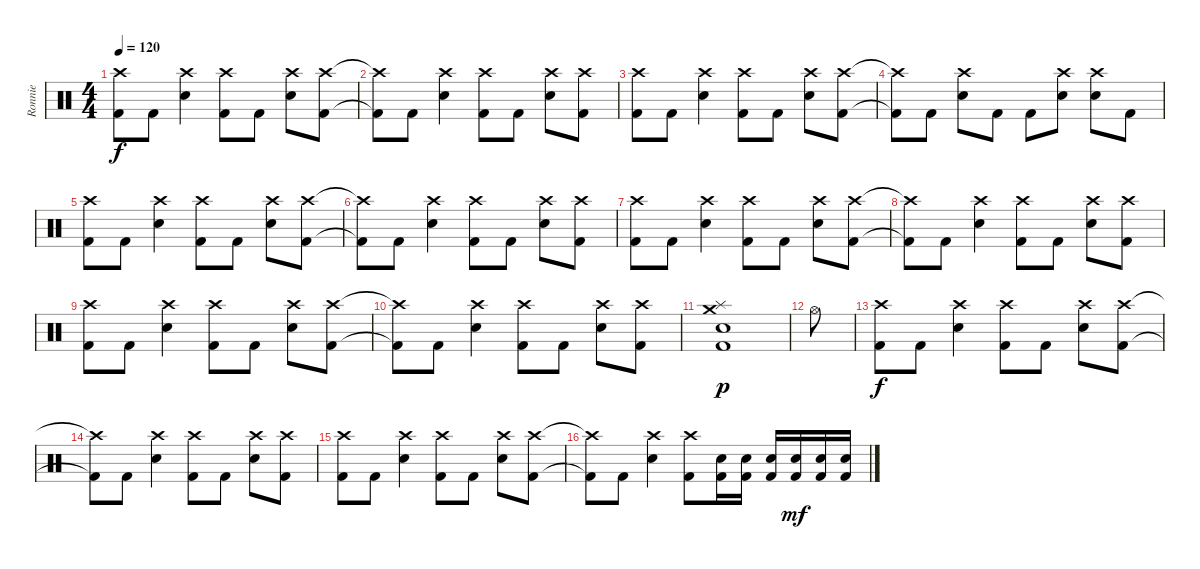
\track ("Ronnie" "Ronnie") {instrument percussion}
\staff {score}
\articulation defaults
\ts (4 4)
\tempo 120
\clef neutral
\ks c
("Crash high (hit)" "Kick (hit) 2").8{dy f} "Kick (hit) 2".8 ("Crash high (hit)" "Snare (hit) 2").4 ("Crash high (hit)" "Kick (hit) 2").8 "Kick (hit) 2".8 ("Crash high (hit)" "Snare (hit) 2").8 ("Crash high (hit)" "Kick (hit) 2").8 |
("Crash high (hit)"{t} "Kick (hit) 2"{t}).8 "Kick (hit) 2".8 ("Crash high (hit)" "Snare (hit) 2").4 ("Crash high (hit)" "Kick (hit) 2").8 "Kick (hit) 2".8 ("Crash high (hit)" "Snare (hit) 2").8 ("Crash high (hit)" "Kick (hit) 2").8 |
("Crash high (hit)" "Kick (hit) 2").8 "Kick (hit) 2".8 ("Crash high (hit)" "Snare (hit) 2").4 ("Crash high (hit)" "Kick (hit) 2").8 "Kick (hit) 2".8 ("Crash high (hit)" "Snare (hit) 2").8 ("Crash high (hit)" "Kick (hit) 2").8 |
("Crash high (hit)"{t} "Kick (hit) 2"{t}).8 "Kick (hit) 2".8 ("Crash high (hit)" "Snare (hit) 2").8 "Kick (hit) 2".8 "Kick (hit) 2".8 ("Crash high (hit)" "Snare (hit) 2").8 ("Crash high (hit)" "Snare (hit) 2").8 "Kick (hit) 2".8 |
("Crash high (hit)" "Kick (hit) 2").8 "Kick (hit) 2".8 ("Crash high (hit)" "Snare (hit) 2").4 ("Crash high (hit)" "Kick (hit) 2").8 "Kick (hit) 2".8 ("Crash high (hit)" "Snare (hit) 2").8 ("Crash high (hit)" "Kick (hit) 2").8 |
("Crash high (hit)"{t} "Kick (hit) 2"{t}).8 "Kick (hit) 2".8 ("Crash high (hit)" "Snare (hit) 2").4 ("Crash high (hit)" "Kick (hit) 2").8 "Kick (hit) 2".8 ("Crash high (hit)" "Snare (hit) 2").8 ("Crash high (hit)" "Kick (hit) 2").8 |
("Crash high (hit)" "Kick (hit) 2").8 "Kick (hit) 2".8 ("Crash high (hit)" "Snare (hit) 2").4 ("Crash high (hit)" "Kick (hit) 2").8 "Kick (hit) 2".8 ("Crash high (hit)" "Snare (hit) 2").8 ("Crash high (hit)" "Kick (hit) 2").8 |
("Crash high (hit)"{t} "Kick (hit) 2"{t}).8 "Kick (hit) 2".8 ("Crash high (hit)" "Snare (hit) 2").4 ("Crash high (hit)" "Kick (hit) 2").8 "Kick (hit) 2".8 ("Crash high (hit)" "Snare (hit) 2").8 ("Crash high (hit)" "Kick (hit) 2").8 |
("Crash high (hit)" "Kick (hit) 2").8 "Kick (hit) 2".8 ("Crash high (hit)" "Snare (hit) 2").4 ("Crash high (hit)" "Kick (hit) 2").8 "Kick (hit) 2".8 ("Crash high (hit)" "Snare (hit) 2").8 ("Crash high (hit)" "Kick (hit) 2").8 |
("Crash high (hit)"{t} "Kick (hit) 2"{t}).8 "Kick (hit) 2".8 ("Crash high (hit)" "Snare (hit) 2").4 ("Crash high (hit)" "Kick (hit) 2").8 "Kick (hit) 2".8 ("Crash high (hit)" "Snare (hit) 2").8 ("Crash high (hit)" "Kick (hit) 2").8 |
("Crash medium (hit)" "Snare (hit) 2" "Kick (hit) 2" "Splash (hit)").1{dy p} |
"Hi-Hat (open)".8 |
("Crash high (hit)" "Kick (hit) 2").8{dy f} "Kick (hit) 2".8 ("Crash high (hit)" "Snare (hit) 2").4 ("Crash high (hit)" "Kick (hit) 2").8 "Kick (hit) 2".8 ("Crash high (hit)" "Snare (hit) 2").8 ("Crash high (hit)" "Kick (hit) 2").8 |
("Crash high (hit)"{t} "Kick (hit) 2"{t}).8 "Kick (hit) 2".8 ("Crash high (hit)" "Snare (hit) 2").4 ("Crash high (hit)" "Kick (hit) 2").8 "Kick (hit) 2".8 ("Crash high (hit)" "Snare (hit) 2").8 ("Crash high (hit)" "Kick (hit) 2").8 |
("Crash high (hit)" "Kick (hit) 2").8 "Kick (hit) 2".8 ("Crash high (hit)" "Snare (hit) 2").4 ("Crash high (hit)" "Kick (hit) 2").8 "Kick (hit) 2".8 ("Crash high (hit)" "Snare (hit) 2").8 ("Crash high (hit)" "Kick (hit) 2").8 |
("Crash high (hit)"{t} "Kick (hit) 2"{t}).8 "Kick (hit) 2".8 ("Crash high (hit)" "Snare (hit) 2").4 ("Crash high (hit)" "Kick (hit) 2").8 ("Kick (hit) 2" "Snare (hit) 2").16 ("Kick (hit) 2" "Snare (hit) 2").16 ("Kick (hit) 2" "Snare (hit) 2").16 ("Kick (hit) 2" "Snare (hit) 2").16{dy mf} ("Kick (hit) 2" "Snare (hit) 2").16 ("Kick (hit) 2" "Snare (hit) 2").16
